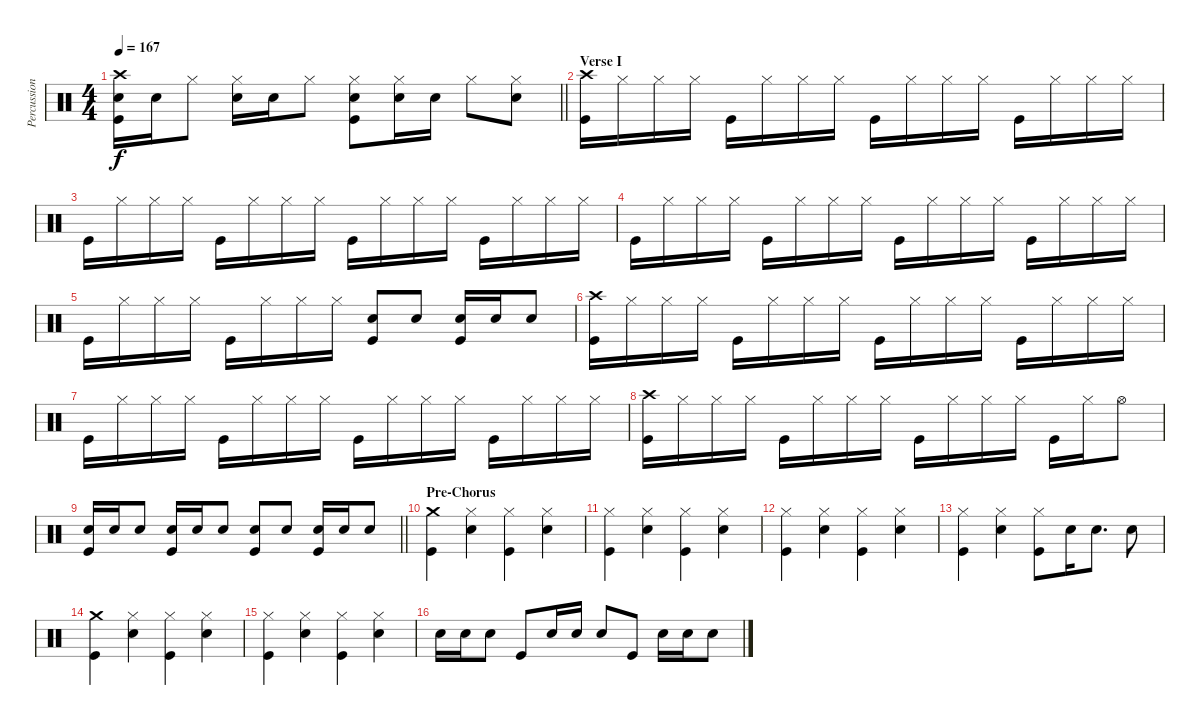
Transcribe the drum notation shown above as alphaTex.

\track ("Percussion" "Percussion") {instrument percussion}
\staff {score}
\articulation defaults
\ts (4 4)
\tempo 167
\clef neutral
\barLineRight lightlight
\ks c
("Crash high (hit)" "Electric Snare (hit)" "Kick (hit)").16{dy f} "Electric Snare (hit)".16 "Hi-Hat (closed)".8 ("Hi-Hat (closed)" "Electric Snare (hit)").16 "Electric Snare (hit)".16 "Hi-Hat (closed)".8 ("Hi-Hat (closed)" "Electric Snare (hit)" "Kick (hit)").8 ("Hi-Hat (closed)" "Electric Snare (hit)").16 "Electric Snare (hit)".16 "Hi-Hat (closed)".8 ("Hi-Hat (closed)" "Electric Snare (hit)").8 |
\section ("" "Verse I")
("Crash high (hit)" "Kick (hit)").16 "Hi-Hat (closed)".16 "Hi-Hat (closed)".16 "Hi-Hat (closed)".16 "Kick (hit)".16 "Hi-Hat (closed)".16 "Hi-Hat (closed)".16 "Hi-Hat (closed)".16 "Kick (hit)".16 "Hi-Hat (closed)".16 "Hi-Hat (closed)".16 "Hi-Hat (closed)".16 "Kick (hit)".16 "Hi-Hat (closed)".16 "Hi-Hat (closed)".16 "Hi-Hat (closed)".16 |
"Kick (hit)".16 "Hi-Hat (closed)".16 "Hi-Hat (closed)".16 "Hi-Hat (closed)".16 "Kick (hit)".16 "Hi-Hat (closed)".16 "Hi-Hat (closed)".16 "Hi-Hat (closed)".16 "Kick (hit)".16 "Hi-Hat (closed)".16 "Hi-Hat (closed)".16 "Hi-Hat (closed)".16 "Kick (hit)".16 "Hi-Hat (closed)".16 "Hi-Hat (closed)".16 "Hi-Hat (closed)".16 |
"Kick (hit)".16 "Hi-Hat (closed)".16 "Hi-Hat (closed)".16 "Hi-Hat (closed)".16 "Kick (hit)".16 "Hi-Hat (closed)".16 "Hi-Hat (closed)".16 "Hi-Hat (closed)".16 "Kick (hit)".16 "Hi-Hat (closed)".16 "Hi-Hat (closed)".16 "Hi-Hat (closed)".16 "Kick (hit)".16 "Hi-Hat (closed)".16 "Hi-Hat (closed)".16 "Hi-Hat (closed)".16 |
"Kick (hit)".16 "Hi-Hat (closed)".16 "Hi-Hat (closed)".16 "Hi-Hat (closed)".16 "Kick (hit)".16 "Hi-Hat (closed)".16 "Hi-Hat (closed)".16 "Hi-Hat (closed)".16 ("Electric Snare (hit)" "Kick (hit)").8 "Electric Snare (hit)".8 ("Electric Snare (hit)" "Kick (hit)").16 "Electric Snare (hit)".16 "Electric Snare (hit)".8 |
("Crash high (hit)" "Kick (hit)").16 "Hi-Hat (closed)".16 "Hi-Hat (closed)".16 "Hi-Hat (closed)".16 "Kick (hit)".16 "Hi-Hat (closed)".16 "Hi-Hat (closed)".16 "Hi-Hat (closed)".16 "Kick (hit)".16 "Hi-Hat (closed)".16 "Hi-Hat (closed)".16 "Hi-Hat (closed)".16 "Kick (hit)".16 "Hi-Hat (closed)".16 "Hi-Hat (closed)".16 "Hi-Hat (closed)".16 |
"Kick (hit)".16 "Hi-Hat (closed)".16 "Hi-Hat (closed)".16 "Hi-Hat (closed)".16 "Kick (hit)".16 "Hi-Hat (closed)".16 "Hi-Hat (closed)".16 "Hi-Hat (closed)".16 "Kick (hit)".16 "Hi-Hat (closed)".16 "Hi-Hat (closed)".16 "Hi-Hat (closed)".16 "Kick (hit)".16 "Hi-Hat (closed)".16 "Hi-Hat (closed)".16 "Hi-Hat (closed)".16 |
("Crash high (hit)" "Kick (hit)").16 "Hi-Hat (closed)".16 "Hi-Hat (closed)".16 "Hi-Hat (closed)".16 "Kick (hit)".16 "Hi-Hat (closed)".16 "Hi-Hat (closed)".16 "Hi-Hat (closed)".16 "Kick (hit)".16 "Hi-Hat (closed)".16 "Hi-Hat (closed)".16 "Hi-Hat (closed)".16 "Kick (hit)".16 "Hi-Hat (closed)".16 "Hi-Hat (open)".8 |
\barLineRight lightlight
("Electric Snare (hit)" "Kick (hit)").16 "Electric Snare (hit)".16 "Electric Snare (hit)".8 ("Electric Snare (hit)" "Kick (hit)").16 "Electric Snare (hit)".16 "Electric Snare (hit)".8 ("Electric Snare (hit)" "Kick (hit)").8 "Electric Snare (hit)".8 ("Electric Snare (hit)" "Kick (hit)").16 "Electric Snare (hit)".16 "Electric Snare (hit)".8 |
\section ("" "Pre-Chorus")
("Crash medium (hit)" "Kick (hit)").4 ("Hi-Hat (closed)" "Electric Snare (hit)").4 ("Hi-Hat (closed)" "Kick (hit)").4 ("Hi-Hat (closed)" "Electric Snare (hit)").4 |
("Hi-Hat (closed)" "Kick (hit)").4 ("Hi-Hat (closed)" "Electric Snare (hit)").4 ("Hi-Hat (closed)" "Kick (hit)").4 ("Hi-Hat (closed)" "Electric Snare (hit)").4 |
("Hi-Hat (closed)" "Kick (hit)").4 ("Hi-Hat (closed)" "Electric Snare (hit)").4 ("Hi-Hat (closed)" "Kick (hit)").4 ("Hi-Hat (closed)" "Electric Snare (hit)").4 |
("Hi-Hat (closed)" "Kick (hit)").4 ("Hi-Hat (closed)" "Electric Snare (hit)").4 ("Hi-Hat (closed)" "Kick (hit)").8 "Electric Snare (hit)".16 "Electric Snare (hit)".8{d} "Electric Snare (hit)".8 |
("Crash medium (hit)" "Kick (hit)").4 ("Hi-Hat (closed)" "Electric Snare (hit)").4 ("Hi-Hat (closed)" "Kick (hit)").4 ("Hi-Hat (closed)" "Electric Snare (hit)").4 |
("Hi-Hat (closed)" "Kick (hit)").4 ("Hi-Hat (closed)" "Electric Snare (hit)").4 ("Hi-Hat (closed)" "Kick (hit)").4 ("Hi-Hat (closed)" "Electric Snare (hit)").4 |
"Electric Snare (hit)".16 "Electric Snare (hit)".16 "Electric Snare (hit)".8 "Kick (hit)".8 "Electric Snare (hit)".16 "Electric Snare (hit)".16 "Electric Snare (hit)".8 "Kick (hit)".8 "Electric Snare (hit)".16 "Electric Snare (hit)".16 "Electric Snare (hit)".8
